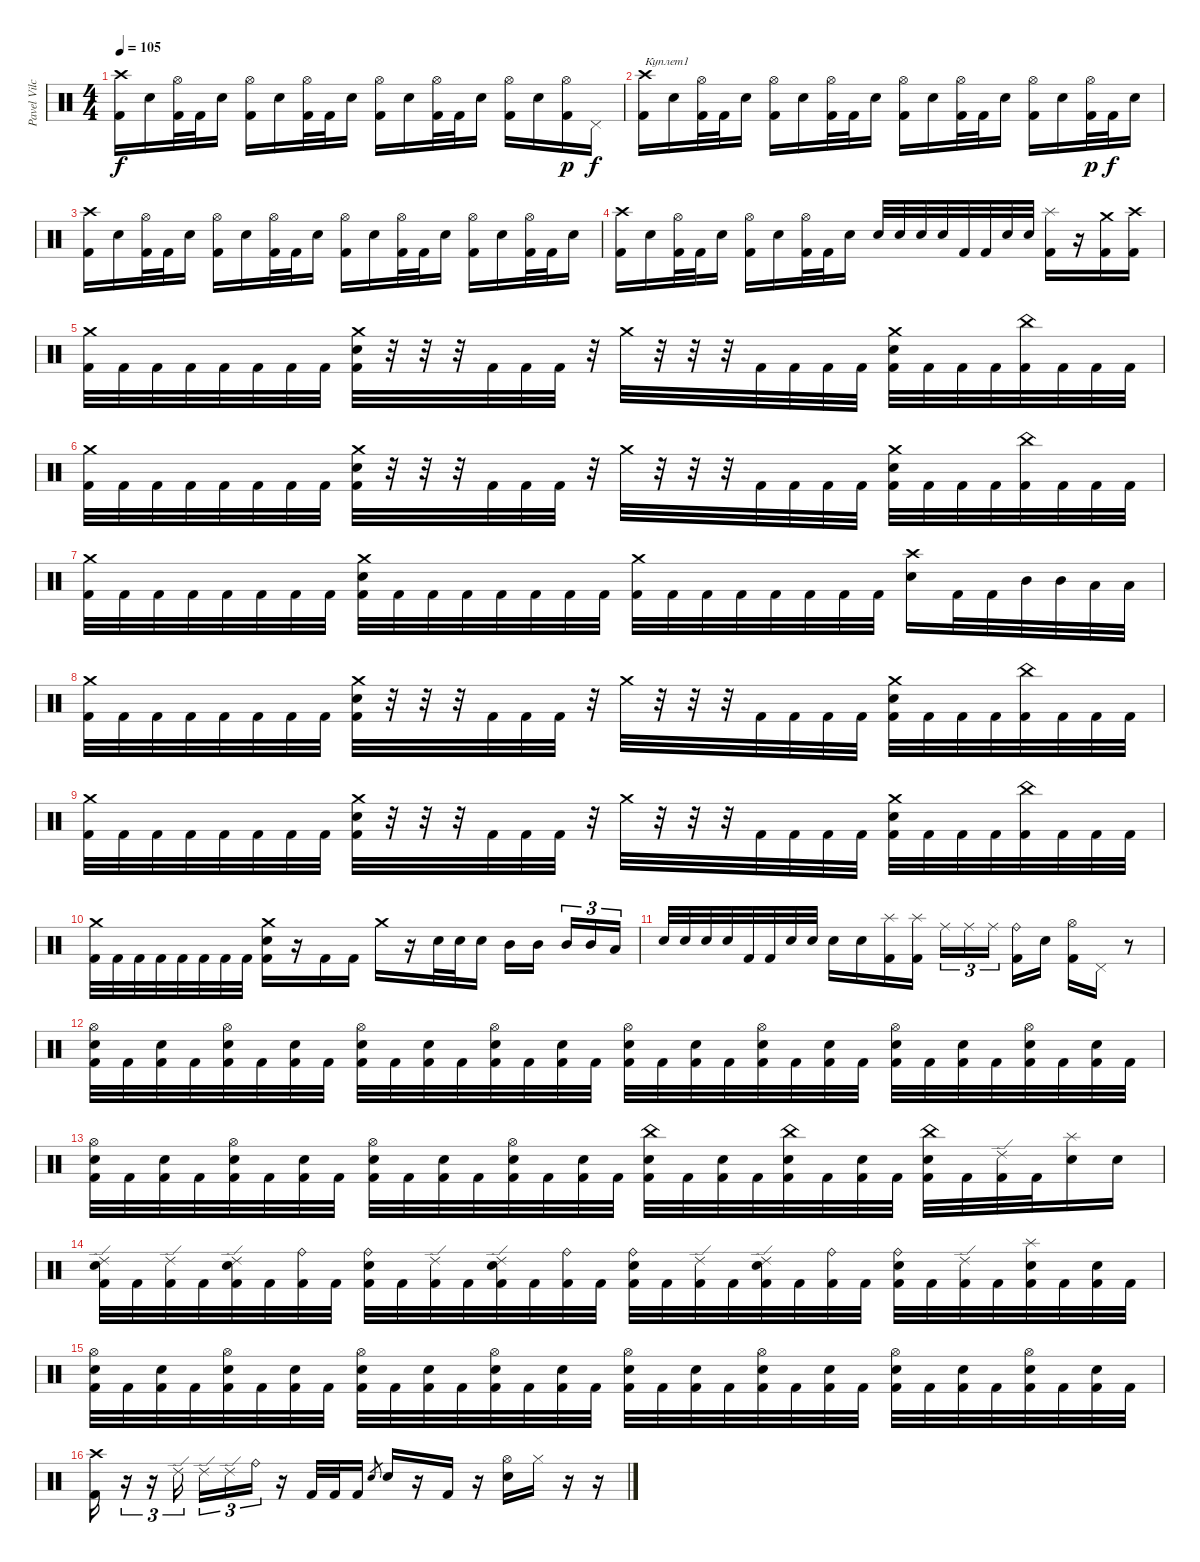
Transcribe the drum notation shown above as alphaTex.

\track ("Pavel Vilchytski" "Pavel Vilc") {instrument percussion}
\staff {score}
\articulation defaults
\ts (4 4)
\tempo 105
\clef neutral
\ks c
("Crash high (hit)" "Kick (hit) 2").16{dy f} "Electric Snare (hit)".16 ("Hi-Hat (open)" "Kick (hit) 2").32 "Kick (hit) 2".32 "Electric Snare (hit)".16 ("Hi-Hat (open)" "Kick (hit) 2").16 "Electric Snare (hit)".16 ("Hi-Hat (open)" "Kick (hit) 2").32 "Kick (hit) 2".32 "Electric Snare (hit)".16 ("Hi-Hat (open)" "Kick (hit) 2").16 "Electric Snare (hit)".16 ("Hi-Hat (open)" "Kick (hit) 2").32 "Kick (hit) 2".32 "Electric Snare (hit)".16 ("Hi-Hat (open)" "Kick (hit) 2").16 "Electric Snare (hit)".16 ("Hi-Hat (open)" "Kick (hit) 2").16{dy p} "Pedal Hi-Hat (hit)".16{dy f} |
("Crash high (hit)" "Kick (hit) 2").16{txt "Куплет1"} "Electric Snare (hit)".16 ("Hi-Hat (open)" "Kick (hit) 2").32 "Kick (hit) 2".32 "Electric Snare (hit)".16 ("Hi-Hat (open)" "Kick (hit) 2").16 "Electric Snare (hit)".16 ("Hi-Hat (open)" "Kick (hit) 2").32 "Kick (hit) 2".32 "Electric Snare (hit)".16 ("Hi-Hat (open)" "Kick (hit) 2").16 "Electric Snare (hit)".16 ("Hi-Hat (open)" "Kick (hit) 2").32 "Kick (hit) 2".32 "Electric Snare (hit)".16 ("Hi-Hat (open)" "Kick (hit) 2").16 "Electric Snare (hit)".16 ("Hi-Hat (open)" "Kick (hit) 2").32{dy p} "Kick (hit) 2".32{dy f} "Electric Snare (hit)".16 |
("Crash high (hit)" "Kick (hit) 2").16 "Electric Snare (hit)".16 ("Hi-Hat (open)" "Kick (hit) 2").32 "Kick (hit) 2".32 "Electric Snare (hit)".16 ("Hi-Hat (open)" "Kick (hit) 2").16 "Electric Snare (hit)".16 ("Hi-Hat (open)" "Kick (hit) 2").32 "Kick (hit) 2".32 "Electric Snare (hit)".16 ("Hi-Hat (open)" "Kick (hit) 2").16 "Electric Snare (hit)".16 ("Hi-Hat (open)" "Kick (hit) 2").32 "Kick (hit) 2".32 "Electric Snare (hit)".16 ("Hi-Hat (open)" "Kick (hit) 2").16 "Electric Snare (hit)".16 ("Hi-Hat (open)" "Kick (hit) 2").32 "Kick (hit) 2".32 "Electric Snare (hit)".16 |
("Crash high (hit)" "Kick (hit) 2").16 "Electric Snare (hit)".16 ("Hi-Hat (open)" "Kick (hit) 2").32 "Kick (hit) 2".32 "Electric Snare (hit)".16 ("Hi-Hat (open)" "Kick (hit) 2").16 "Electric Snare (hit)".16 ("Hi-Hat (open)" "Kick (hit) 2").32 "Kick (hit) 2".32 "Electric Snare (hit)".16 "Electric Snare (hit)".32 "Electric Snare (hit)".32 "Electric Snare (hit)".32 "Electric Snare (hit)".32 "Kick (hit) 2".32 "Kick (hit) 2".32 "Electric Snare (hit)".32 "Electric Snare (hit)".32 ("Splash (hit)" "Kick (hit) 2").16 r.16 ("Crash medium (hit)" "Kick (hit) 2").16 ("Crash high (hit)" "Kick (hit) 2").16 |
("Crash medium (hit)" "Kick (hit) 2").32 "Kick (hit) 2".32 "Kick (hit) 2".32 "Kick (hit) 2".32 "Kick (hit) 2".32 "Kick (hit) 2".32 "Kick (hit) 2".32 "Kick (hit) 2".32 ("Crash medium (hit)" "Electric Snare (hit)" "Kick (hit) 2").32 r.32 r.32 r.32 "Kick (hit) 2".32 "Kick (hit) 2".32 "Kick (hit) 2".32 r.32 "Crash medium (hit)".32 r.32 r.32 r.32 "Kick (hit) 2".32 "Kick (hit) 2".32 "Kick (hit) 2".32 "Kick (hit) 2".32 ("Crash medium (hit)" "Electric Snare (hit)" "Kick (hit) 2").32 "Kick (hit) 2".32 "Kick (hit) 2".32 "Kick (hit) 2".32 ("China (hit)" "Kick (hit) 2").32 "Kick (hit) 2".32 "Kick (hit) 2".32 "Kick (hit) 2".32 |
("Crash medium (hit)" "Kick (hit) 2").32 "Kick (hit) 2".32 "Kick (hit) 2".32 "Kick (hit) 2".32 "Kick (hit) 2".32 "Kick (hit) 2".32 "Kick (hit) 2".32 "Kick (hit) 2".32 ("Crash medium (hit)" "Electric Snare (hit)" "Kick (hit) 2").32 r.32 r.32 r.32 "Kick (hit) 2".32 "Kick (hit) 2".32 "Kick (hit) 2".32 r.32 "Crash medium (hit)".32 r.32 r.32 r.32 "Kick (hit) 2".32 "Kick (hit) 2".32 "Kick (hit) 2".32 "Kick (hit) 2".32 ("Crash medium (hit)" "Electric Snare (hit)" "Kick (hit) 2").32 "Kick (hit) 2".32 "Kick (hit) 2".32 "Kick (hit) 2".32 ("China (hit)" "Kick (hit) 2").32 "Kick (hit) 2".32 "Kick (hit) 2".32 "Kick (hit) 2".32 |
("Crash medium (hit)" "Kick (hit) 2").32 "Kick (hit) 2".32 "Kick (hit) 2".32 "Kick (hit) 2".32 "Kick (hit) 2".32 "Kick (hit) 2".32 "Kick (hit) 2".32 "Kick (hit) 2".32 ("Crash medium (hit)" "Electric Snare (hit)" "Kick (hit) 2").32 "Kick (hit) 2".32 "Kick (hit) 2".32 "Kick (hit) 2".32 "Kick (hit) 2".32 "Kick (hit) 2".32 "Kick (hit) 2".32 "Kick (hit) 2".32 ("Crash medium (hit)" "Kick (hit) 2").32 "Kick (hit) 2".32 "Kick (hit) 2".32 "Kick (hit) 2".32 "Kick (hit) 2".32 "Kick (hit) 2".32 "Kick (hit) 2".32 "Kick (hit) 2".32 ("Electric Snare (hit)" "Crash high (hit)").16 "Kick (hit) 2".32 "Kick (hit) 2".32 "Mid Tom (hit)".32 "Mid Tom (hit)".32 "Low Tom (hit)".32 "Low Tom (hit)".32 |
("Crash medium (hit)" "Kick (hit) 2").32 "Kick (hit) 2".32 "Kick (hit) 2".32 "Kick (hit) 2".32 "Kick (hit) 2".32 "Kick (hit) 2".32 "Kick (hit) 2".32 "Kick (hit) 2".32 ("Crash medium (hit)" "Electric Snare (hit)" "Kick (hit) 2").32 r.32 r.32 r.32 "Kick (hit) 2".32 "Kick (hit) 2".32 "Kick (hit) 2".32 r.32 "Crash medium (hit)".32 r.32 r.32 r.32 "Kick (hit) 2".32 "Kick (hit) 2".32 "Kick (hit) 2".32 "Kick (hit) 2".32 ("Crash medium (hit)" "Electric Snare (hit)" "Kick (hit) 2").32 "Kick (hit) 2".32 "Kick (hit) 2".32 "Kick (hit) 2".32 ("China (hit)" "Kick (hit) 2").32 "Kick (hit) 2".32 "Kick (hit) 2".32 "Kick (hit) 2".32 |
("Crash medium (hit)" "Kick (hit) 2").32 "Kick (hit) 2".32 "Kick (hit) 2".32 "Kick (hit) 2".32 "Kick (hit) 2".32 "Kick (hit) 2".32 "Kick (hit) 2".32 "Kick (hit) 2".32 ("Crash medium (hit)" "Electric Snare (hit)" "Kick (hit) 2").32 r.32 r.32 r.32 "Kick (hit) 2".32 "Kick (hit) 2".32 "Kick (hit) 2".32 r.32 "Crash medium (hit)".32 r.32 r.32 r.32 "Kick (hit) 2".32 "Kick (hit) 2".32 "Kick (hit) 2".32 "Kick (hit) 2".32 ("Crash medium (hit)" "Electric Snare (hit)" "Kick (hit) 2").32 "Kick (hit) 2".32 "Kick (hit) 2".32 "Kick (hit) 2".32 ("China (hit)" "Kick (hit) 2").32 "Kick (hit) 2".32 "Kick (hit) 2".32 "Kick (hit) 2".32 |
("Crash medium (hit)" "Kick (hit) 2").32 "Kick (hit) 2".32 "Kick (hit) 2".32 "Kick (hit) 2".32 "Kick (hit) 2".32 "Kick (hit) 2".32 "Kick (hit) 2".32 "Kick (hit) 2".32 ("Crash medium (hit)" "Electric Snare (hit)" "Kick (hit) 2").16 r.16 "Kick (hit) 2".16 "Kick (hit) 2".16 "Crash medium (hit)".16 r.16 "Electric Snare (hit)".32 "Electric Snare (hit)".32 "Electric Snare (hit)".16 "Mid Tom (hit)".16 "Mid Tom (hit)".16{beam splitsecondary} "Mid Tom (hit)".16{tu (3 2)} "Mid Tom (hit)".16{tu (3 2)} "Low Tom (hit)".16{tu (3 2)} |
"Electric Snare (hit)".32 "Electric Snare (hit)".32 "Electric Snare (hit)".32 "Electric Snare (hit)".32 "Kick (hit) 2".32 "Kick (hit) 2".32 "Electric Snare (hit)".32 "Electric Snare (hit)".32 "Electric Snare (hit)".16 "Electric Snare (hit)".16 ("Splash (hit)" "Kick (hit) 2").16 ("Splash (hit)" "Kick (hit) 2").16 "Ride (middle)".16{tu (3 2)} "Ride (middle)".16{tu (3 2)} "Ride (middle)".16{tu (3 2) beam splitsecondary} ("Ride (bell)" "Kick (hit) 2").16 "Electric Snare (hit)".16 ("Hi-Hat (open)" "Kick (hit) 2").16 "Pedal Hi-Hat (hit)".16 r.8 |
("Hi-Hat (open)" "Electric Snare (hit)" "Kick (hit) 2").32 "Kick (hit) 2".32 ("Electric Snare (hit)" "Kick (hit) 2").32 "Kick (hit) 2".32 ("Hi-Hat (open)" "Electric Snare (hit)" "Kick (hit) 2").32 "Kick (hit) 2".32 ("Electric Snare (hit)" "Kick (hit) 2").32 "Kick (hit) 2".32 ("Hi-Hat (open)" "Electric Snare (hit)" "Kick (hit) 2").32 "Kick (hit) 2".32 ("Electric Snare (hit)" "Kick (hit) 2").32 "Kick (hit) 2".32 ("Hi-Hat (open)" "Electric Snare (hit)" "Kick (hit) 2").32 "Kick (hit) 2".32 ("Electric Snare (hit)" "Kick (hit) 2").32 "Kick (hit) 2".32 ("Hi-Hat (open)" "Electric Snare (hit)" "Kick (hit) 2").32 "Kick (hit) 2".32 ("Electric Snare (hit)" "Kick (hit) 2").32 "Kick (hit) 2".32 ("Hi-Hat (open)" "Electric Snare (hit)" "Kick (hit) 2").32 "Kick (hit) 2".32 ("Electric Snare (hit)" "Kick (hit) 2").32 "Kick (hit) 2".32 ("Hi-Hat (open)" "Electric Snare (hit)" "Kick (hit) 2").32 "Kick (hit) 2".32 ("Electric Snare (hit)" "Kick (hit) 2").32 "Kick (hit) 2".32 ("Hi-Hat (open)" "Electric Snare (hit)" "Kick (hit) 2").32 "Kick (hit) 2".32 ("Electric Snare (hit)" "Kick (hit) 2").32 "Kick (hit) 2".32 |
("Hi-Hat (open)" "Electric Snare (hit)" "Kick (hit) 2").32 "Kick (hit) 2".32 ("Electric Snare (hit)" "Kick (hit) 2").32 "Kick (hit) 2".32 ("Hi-Hat (open)" "Electric Snare (hit)" "Kick (hit) 2").32 "Kick (hit) 2".32 ("Electric Snare (hit)" "Kick (hit) 2").32 "Kick (hit) 2".32 ("Hi-Hat (open)" "Electric Snare (hit)" "Kick (hit) 2").32 "Kick (hit) 2".32 ("Electric Snare (hit)" "Kick (hit) 2").32 "Kick (hit) 2".32 ("Hi-Hat (open)" "Electric Snare (hit)" "Kick (hit) 2").32 "Kick (hit) 2".32 ("Electric Snare (hit)" "Kick (hit) 2").32 "Kick (hit) 2".32 ("China (hit)" "Electric Snare (hit)" "Kick (hit) 2").32 "Kick (hit) 2".32 ("Electric Snare (hit)" "Kick (hit) 2").32 "Kick (hit) 2".32 ("China (hit)" "Electric Snare (hit)" "Kick (hit) 2").32 "Kick (hit) 2".32 ("Electric Snare (hit)" "Kick (hit) 2").32 "Kick (hit) 2".32 ("China (hit)" "Electric Snare (hit)" "Kick (hit) 2").32 "Kick (hit) 2".32 ("Ride (edge) 2" "Kick (hit) 2").32 "Kick (hit) 2".32 ("Splash (hit)" "Electric Snare (hit)").16 "Electric Snare (hit)".16 |
("Ride (edge) 2" "Electric Snare (hit)" "Kick (hit) 2").32 "Kick (hit) 2".32 ("Ride (edge) 2" "Kick (hit) 2").32 "Kick (hit) 2".32 ("Ride (edge) 2" "Electric Snare (hit)" "Kick (hit) 2").32 "Kick (hit) 2".32 ("Ride (bell)" "Kick (hit) 2").32 "Kick (hit) 2".32 ("Ride (bell)" "Electric Snare (hit)" "Kick (hit) 2").32 "Kick (hit) 2".32 ("Ride (edge) 2" "Kick (hit) 2").32 "Kick (hit) 2".32 ("Ride (edge) 2" "Electric Snare (hit)" "Kick (hit) 2").32 "Kick (hit) 2".32 ("Ride (bell)" "Kick (hit) 2").32 "Kick (hit) 2".32 ("Ride (bell)" "Electric Snare (hit)" "Kick (hit) 2").32 "Kick (hit) 2".32 ("Ride (edge) 2" "Kick (hit) 2").32 "Kick (hit) 2".32 ("Ride (edge) 2" "Electric Snare (hit)" "Kick (hit) 2").32 "Kick (hit) 2".32 ("Ride (bell)" "Kick (hit) 2").32 "Kick (hit) 2".32 ("Ride (bell)" "Electric Snare (hit)" "Kick (hit) 2").32 "Kick (hit) 2".32 ("Ride (edge) 2" "Kick (hit) 2").32 "Kick (hit) 2".32 ("Splash (hit)" "Electric Snare (hit)" "Kick (hit) 2").32 "Kick (hit) 2".32 ("Electric Snare (hit)" "Kick (hit) 2").32 "Kick (hit) 2".32 |
("Hi-Hat (open)" "Electric Snare (hit)" "Kick (hit) 2").32 "Kick (hit) 2".32 ("Electric Snare (hit)" "Kick (hit) 2").32 "Kick (hit) 2".32 ("Hi-Hat (open)" "Electric Snare (hit)" "Kick (hit) 2").32 "Kick (hit) 2".32 ("Electric Snare (hit)" "Kick (hit) 2").32 "Kick (hit) 2".32 ("Hi-Hat (open)" "Electric Snare (hit)" "Kick (hit) 2").32 "Kick (hit) 2".32 ("Electric Snare (hit)" "Kick (hit) 2").32 "Kick (hit) 2".32 ("Hi-Hat (open)" "Electric Snare (hit)" "Kick (hit) 2").32 "Kick (hit) 2".32 ("Electric Snare (hit)" "Kick (hit) 2").32 "Kick (hit) 2".32 ("Hi-Hat (open)" "Electric Snare (hit)" "Kick (hit) 2").32 "Kick (hit) 2".32 ("Electric Snare (hit)" "Kick (hit) 2").32 "Kick (hit) 2".32 ("Hi-Hat (open)" "Electric Snare (hit)" "Kick (hit) 2").32 "Kick (hit) 2".32 ("Electric Snare (hit)" "Kick (hit) 2").32 "Kick (hit) 2".32 ("Hi-Hat (open)" "Electric Snare (hit)" "Kick (hit) 2").32 "Kick (hit) 2".32 ("Electric Snare (hit)" "Kick (hit) 2").32 "Kick (hit) 2".32 ("Hi-Hat (open)" "Electric Snare (hit)" "Kick (hit) 2").32 "Kick (hit) 2".32 ("Electric Snare (hit)" "Kick (hit) 2").32 "Kick (hit) 2".32 |
("Crash high (hit)" "Kick (hit) 2").16 r.16{tu (3 2)} r.16{tu (3 2)} "Ride (edge) 2".16{tu (3 2) beam splitsecondary} "Ride (edge) 2".16{tu (3 2)} "Ride (edge) 2".16{tu (3 2)} "Ride (bell)".16{tu (3 2)} r.16 "Kick (hit) 2".32 "Kick (hit) 2".32 "Kick (hit) 2".16 "Electric Snare (hit)".8{gr} "Electric Snare (hit)".16 r.16 "Kick (hit) 2".16 r.16 ("Hi-Hat (open)" "Electric Snare (hit)").16 "Hi-Hat (closed)".16 r.16 r.16
